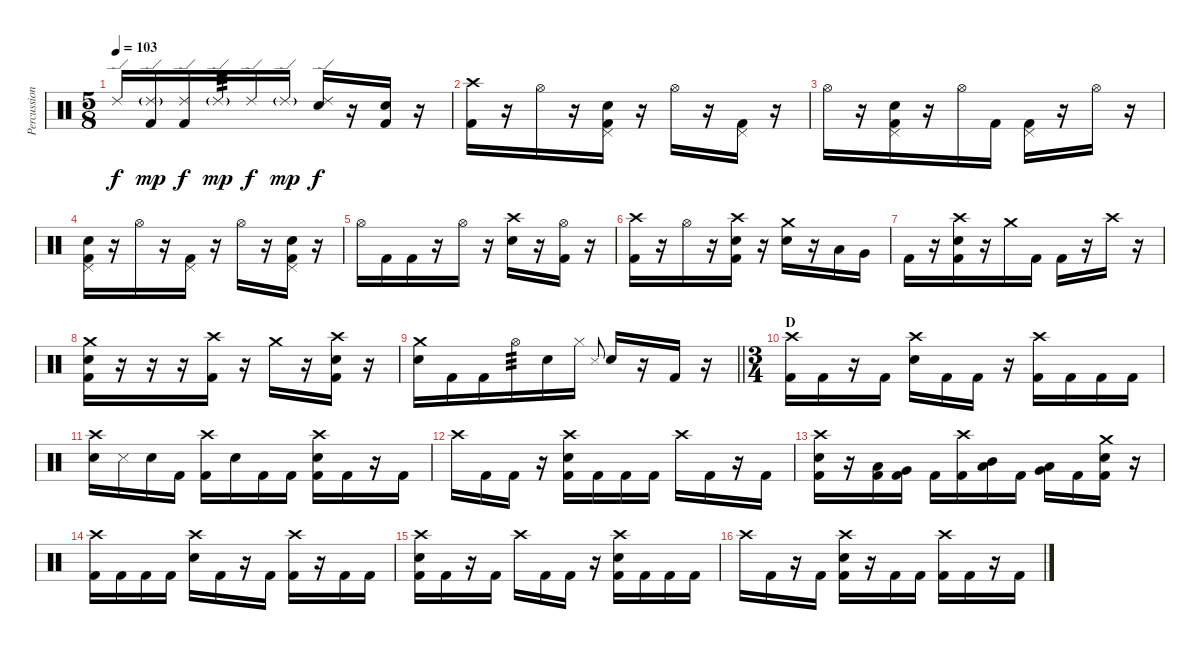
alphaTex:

\track ("Percussion" "Percussion") {instrument percussion}
\staff {score}
\articulation defaults
\ts (5 8)
\tempo 103
\clef neutral
\ks c "Ride (edge) 2".16{dy f}
("Ride (edge) 2"{g} "Kick (hit) 2").16{dy mp} ("Ride (edge) 2" "Kick (hit) 2").16{dy f} "Ride (edge) 2"{g}.16{tp 3 dy mp} "Ride (edge) 2".16{dy f} "Ride (edge) 2"{g}.16{dy mp} ("Ride (edge) 2" "Snare (hit) 2").16{dy f} r.16 ("Snare (hit)" "Kick (hit) 2").16 r.16 |
("Crash high (hit)" "Kick (hit) 2").16 r.16 "Hi-Hat (open)".16 r.16 ("Pedal Hi-Hat (hit)" "Snare (hit) 2" "Kick (hit) 2").16 r.16 "Hi-Hat (open)".16 r.16 ("Pedal Hi-Hat (hit)" "Kick (hit) 2").16 r.16 |
"Hi-Hat (open)".16 r.16 ("Pedal Hi-Hat (hit)" "Snare (hit) 2" "Kick (hit) 2").16 r.16 "Hi-Hat (open)".16 "Kick (hit) 2".16 ("Pedal Hi-Hat (hit)" "Kick (hit) 2").16 r.16 "Hi-Hat (open)".16 r.16 |
("Pedal Hi-Hat (hit)" "Snare (hit) 2" "Kick (hit) 2").16 r.16 "Hi-Hat (open)".16 r.16 ("Pedal Hi-Hat (hit)" "Kick (hit) 2").16 r.16 "Hi-Hat (open)".16 r.16 ("Pedal Hi-Hat (hit)" "Snare (hit) 2" "Kick (hit) 2").16 r.16 |
"Hi-Hat (open)".16 "Kick (hit) 2".16 "Kick (hit) 2".16 r.16 "Hi-Hat (open)".16 r.16 ("Crash high (hit)" "Snare (hit) 2").16 r.16 ("Hi-Hat (open)" "Kick (hit) 2").16 r.16 |
("Crash high (hit)" "Kick (hit) 2").16 r.16 "Hi-Hat (open)".16 r.16 ("Crash high (hit)" "Snare (hit) 2" "Kick (hit) 2").16 r.16 ("Crash medium (hit)" "Snare (hit) 2").16 r.16 "Low Tom (hit)".16 "Very Low Tom (hit)".16 |
"Kick (hit) 2".16 r.16 ("Crash high (hit)" "Snare (hit) 2" "Kick (hit) 2").16 r.16 "Crash medium (hit)".16 "Kick (hit) 2".16 "Kick (hit) 2".16 r.16 "Crash high (hit)".16 r.16 |
("Crash medium (hit)" "Snare (hit) 2" "Kick (hit) 2").16 r.16 r.16 r.16 ("Crash high (hit)" "Kick (hit) 2").16 r.16 "Crash medium (hit)".16 r.16 ("Crash high (hit)" "Snare (hit) 2" "Kick (hit) 2").16 r.16 |
\barLineRight lightlight
("Crash medium (hit)" "Snare (hit) 2").16 "Kick (hit) 2".16 "Kick (hit) 2".16 "Hi-Hat (open)".16{tp 3} "Snare (hit)".16 "Hi-Hat (closed)".16 "Metronome (hit)".8{gr onbeat} "Snare (hit) 2".16 r.16 "Kick (hit) 2".16 r.16 |
\ts (3 4)
\section ("" "D")
("Crash high (hit)" "Kick (hit) 2").16 "Kick (hit) 2".16 r.16 "Kick (hit) 2".16 ("Crash high (hit)" "Snare (hit) 2").16 "Kick (hit) 2".16 "Kick (hit) 2".16 r.16 ("Crash high (hit)" "Kick (hit) 2").16 "Kick (hit) 2".16 "Kick (hit) 2".16 "Kick (hit) 2".16 |
("Crash high (hit)" "Snare (hit) 2").16 "Metronome (hit)".16 "Snare (hit) 2".16 "Kick (hit) 2".16 ("Crash high (hit)" "Kick (hit) 2").16 "Snare (hit) 2".16 "Kick (hit) 2".16 "Kick (hit) 2".16 ("Crash high (hit)" "Snare (hit) 2" "Kick (hit) 2").16 "Kick (hit) 2".16 r.16 "Kick (hit) 2".16 |
"Crash high (hit)".16 "Kick (hit) 2".16 "Kick (hit) 2".16 r.16 ("Crash high (hit)" "Snare (hit) 2" "Kick (hit) 2").16 "Kick (hit) 2".16 "Kick (hit) 2".16 "Kick (hit) 2".16 "Crash high (hit)".16 "Kick (hit) 2".16 r.16 "Kick (hit) 2".16 |
("Crash high (hit)" "Snare (hit) 2" "Kick (hit) 2").16 r.16 ("Low Tom (hit)" "Kick (hit) 2").16 ("Very Low Tom (hit)" "Kick (hit) 2").16 "Kick (hit) 2".16 ("Crash high (hit)" "Kick (hit) 2").16 ("Mid Tom (hit)" "Low Tom (hit)").16{bu 60} "Kick (hit) 2".16 ("Low Tom (hit)" "Very Low Tom (hit)").16{bu 60} "Kick (hit) 2".16 ("Crash medium (hit)" "Snare (hit) 2" "Kick (hit) 2").16 r.16 |
("Crash high (hit)" "Kick (hit) 2").16 "Kick (hit) 2".16 "Kick (hit) 2".16 "Kick (hit) 2".16 ("Crash high (hit)" "Snare (hit) 2").16 "Kick (hit) 2".16 r.16 "Kick (hit) 2".16 ("Crash high (hit)" "Kick (hit) 2").16 r.16 "Kick (hit) 2".16 "Kick (hit) 2".16 |
("Crash high (hit)" "Snare (hit) 2" "Kick (hit) 2").16 "Kick (hit) 2".16 r.16 "Kick (hit) 2".16 "Crash high (hit)".16 "Kick (hit) 2".16 "Kick (hit) 2".16 r.16 ("Crash high (hit)" "Snare (hit) 2" "Kick (hit) 2").16 "Kick (hit) 2".16 "Kick (hit) 2".16 "Kick (hit) 2".16 |
"Crash high (hit)".16 "Kick (hit) 2".16 r.16 "Kick (hit) 2".16 ("Crash high (hit)" "Snare (hit) 2" "Kick (hit) 2").16 r.16 "Kick (hit) 2".16 "Kick (hit) 2".16 ("Crash high (hit)" "Kick (hit) 2").16 "Kick (hit) 2".16 r.16 "Kick (hit) 2".16
